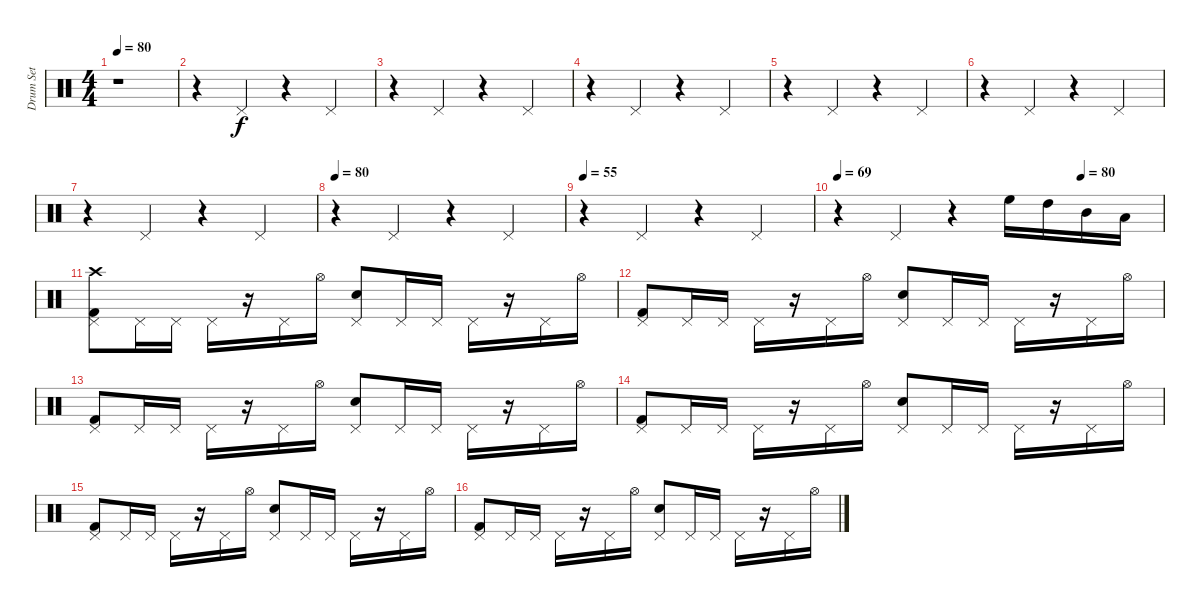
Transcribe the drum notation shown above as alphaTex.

\track ("Drum Set" "Drum Set") {instrument percussion}
\staff {score}
\articulation defaults
\ts (4 4)
\tempo 80
\clef neutral
\ks c
r.1{dy f} |
r.4 "Pedal Hi-Hat (hit)".4 r.4 "Pedal Hi-Hat (hit)".4 |
r.4 "Pedal Hi-Hat (hit)".4 r.4 "Pedal Hi-Hat (hit)".4 |
r.4 "Pedal Hi-Hat (hit)".4 r.4 "Pedal Hi-Hat (hit)".4 |
r.4 "Pedal Hi-Hat (hit)".4 r.4 "Pedal Hi-Hat (hit)".4 |
r.4 "Pedal Hi-Hat (hit)".4 r.4 "Pedal Hi-Hat (hit)".4 |
r.4 "Pedal Hi-Hat (hit)".4 r.4 "Pedal Hi-Hat (hit)".4 |
\tempo 80
r.4 "Pedal Hi-Hat (hit)".4 r.4 "Pedal Hi-Hat (hit)".4 |
\tempo 55
r.4 "Pedal Hi-Hat (hit)".4 r.4 "Pedal Hi-Hat (hit)".4 |
\tempo 69
\tempo (80 0.75)
r.4 "Pedal Hi-Hat (hit)".4 r.4 "High Floor Tom (hit)".16 "High Tom (hit)".16 "Mid Tom (hit)".16 "Low Tom (hit)".16 |
("Pedal Hi-Hat (hit)" "Kick (hit) 2" "Crash high (hit)").8 "Pedal Hi-Hat (hit)".16 "Pedal Hi-Hat (hit)".16 "Pedal Hi-Hat (hit)".16 r.16 "Pedal Hi-Hat (hit)".16 "Hi-Hat (open)".16 ("Pedal Hi-Hat (hit)" "Electric Snare (hit)").8 "Pedal Hi-Hat (hit)".16 "Pedal Hi-Hat (hit)".16 "Pedal Hi-Hat (hit)".16 r.16 "Pedal Hi-Hat (hit)".16 "Hi-Hat (open)".16 |
("Pedal Hi-Hat (hit)" "Kick (hit) 2").8 "Pedal Hi-Hat (hit)".16 "Pedal Hi-Hat (hit)".16 "Pedal Hi-Hat (hit)".16 r.16 "Pedal Hi-Hat (hit)".16 "Hi-Hat (open)".16 ("Pedal Hi-Hat (hit)" "Electric Snare (hit)").8 "Pedal Hi-Hat (hit)".16 "Pedal Hi-Hat (hit)".16 "Pedal Hi-Hat (hit)".16 r.16 "Pedal Hi-Hat (hit)".16 "Hi-Hat (open)".16 |
("Kick (hit) 2" "Pedal Hi-Hat (hit)").8 "Pedal Hi-Hat (hit)".16 "Pedal Hi-Hat (hit)".16 "Pedal Hi-Hat (hit)".16 r.16 "Pedal Hi-Hat (hit)".16 "Hi-Hat (open)".16 ("Electric Snare (hit)" "Pedal Hi-Hat (hit)").8 "Pedal Hi-Hat (hit)".16 "Pedal Hi-Hat (hit)".16 "Pedal Hi-Hat (hit)".16 r.16 "Pedal Hi-Hat (hit)".16 "Hi-Hat (open)".16 |
("Pedal Hi-Hat (hit)" "Kick (hit) 2").8 "Pedal Hi-Hat (hit)".16 "Pedal Hi-Hat (hit)".16 "Pedal Hi-Hat (hit)".16 r.16 "Pedal Hi-Hat (hit)".16 "Hi-Hat (open)".16 ("Pedal Hi-Hat (hit)" "Electric Snare (hit)").8 "Pedal Hi-Hat (hit)".16 "Pedal Hi-Hat (hit)".16 "Pedal Hi-Hat (hit)".16 r.16 "Pedal Hi-Hat (hit)".16 "Hi-Hat (open)".16 |
("Kick (hit) 2" "Pedal Hi-Hat (hit)").8 "Pedal Hi-Hat (hit)".16 "Pedal Hi-Hat (hit)".16 "Pedal Hi-Hat (hit)".16 r.16 "Pedal Hi-Hat (hit)".16 "Hi-Hat (open)".16 ("Electric Snare (hit)" "Pedal Hi-Hat (hit)").8 "Pedal Hi-Hat (hit)".16 "Pedal Hi-Hat (hit)".16 "Pedal Hi-Hat (hit)".16 r.16 "Pedal Hi-Hat (hit)".16 "Hi-Hat (open)".16 |
("Pedal Hi-Hat (hit)" "Kick (hit) 2").8 "Pedal Hi-Hat (hit)".16 "Pedal Hi-Hat (hit)".16 "Pedal Hi-Hat (hit)".16 r.16 "Pedal Hi-Hat (hit)".16 "Hi-Hat (open)".16 ("Pedal Hi-Hat (hit)" "Electric Snare (hit)").8 "Pedal Hi-Hat (hit)".16 "Pedal Hi-Hat (hit)".16 "Pedal Hi-Hat (hit)".16 r.16 "Pedal Hi-Hat (hit)".16 "Hi-Hat (open)".16
